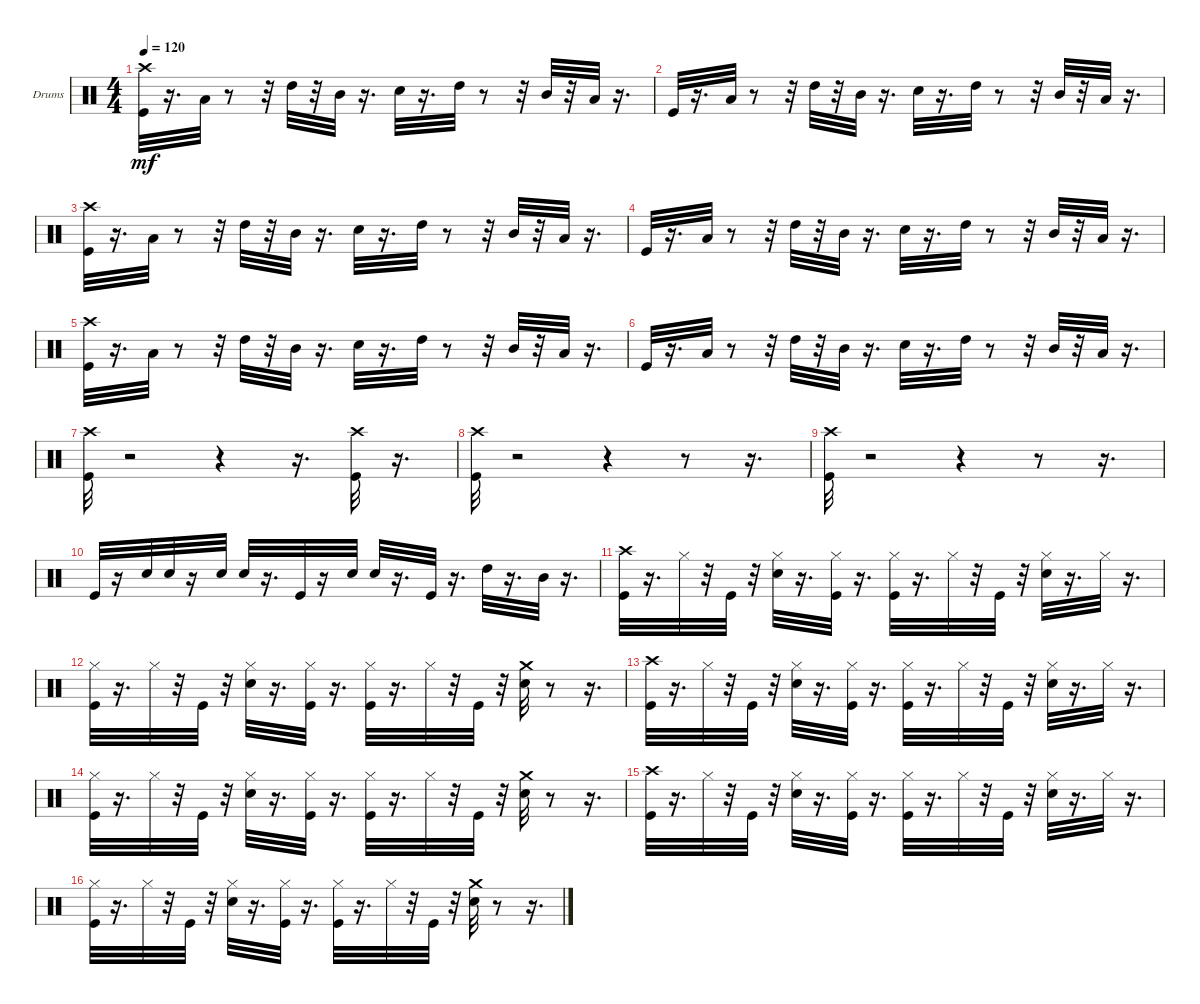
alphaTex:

\bracketExtendMode groupsimilarinstruments
\firstSystemTrackNameOrientation horizontal
\otherSystemsTrackNameOrientation horizontal
\track ("" "Drums") {instrument percussion}
\staff {score}
\articulation defaults
\ts (4 4)
\tempo 120
\clef neutral
\ks c
("Crash high (hit)" "Kick (hit)").32{dy mf} r.16{d} "Low Tom (hit)".32 r.8 r.32 "High Tom (hit)".32 r.32 "Mid Tom (hit)".32 r.16{d} "Snare (hit) 2".32 r.16{d} "High Tom (hit)".32 r.8 r.32 "Mid Tom (hit)".32 r.32 "Low Tom (hit)".32 r.16{d} |
"Kick (hit)".32 r.16{d} "Low Tom (hit)".32 r.8 r.32 "High Tom (hit)".32 r.32 "Mid Tom (hit)".32 r.16{d} "Snare (hit) 2".32 r.16{d} "High Tom (hit)".32 r.8 r.32 "Mid Tom (hit)".32 r.32 "Low Tom (hit)".32 r.16{d} |
("Crash high (hit)" "Kick (hit)").32 r.16{d} "Low Tom (hit)".32 r.8 r.32 "High Tom (hit)".32 r.32 "Mid Tom (hit)".32 r.16{d} "Snare (hit) 2".32 r.16{d} "High Tom (hit)".32 r.8 r.32 "Mid Tom (hit)".32 r.32 "Low Tom (hit)".32 r.16{d} |
"Kick (hit)".32 r.16{d} "Low Tom (hit)".32 r.8 r.32 "High Tom (hit)".32 r.32 "Mid Tom (hit)".32 r.16{d} "Snare (hit) 2".32 r.16{d} "High Tom (hit)".32 r.8 r.32 "Mid Tom (hit)".32 r.32 "Low Tom (hit)".32 r.16{d} |
("Crash high (hit)" "Kick (hit)").32 r.16{d} "Low Tom (hit)".32 r.8 r.32 "High Tom (hit)".32 r.32 "Mid Tom (hit)".32 r.16{d} "Snare (hit) 2".32 r.16{d} "High Tom (hit)".32 r.8 r.32 "Mid Tom (hit)".32 r.32 "Low Tom (hit)".32 r.16{d} |
"Kick (hit)".32 r.16{d} "Low Tom (hit)".32 r.8 r.32 "High Tom (hit)".32 r.32 "Mid Tom (hit)".32 r.16{d} "Snare (hit) 2".32 r.16{d} "High Tom (hit)".32 r.8 r.32 "Mid Tom (hit)".32 r.32 "Low Tom (hit)".32 r.16{d} |
("Crash high (hit)" "Kick (hit)").32 r.2 r.4 r.16{d} ("Crash high (hit)" "Kick (hit)").32 r.16{d} |
("Crash high (hit)" "Kick (hit)").32 r.2 r.4 r.8 r.16{d} |
("Crash high (hit)" "Kick (hit)").32 r.2 r.4 r.8 r.16{d} |
"Kick (hit)".32 r.16 "Snare (hit) 2".32 "Snare (hit) 2".32 r.16 "Snare (hit) 2".32 "Snare (hit) 2".32 r.16{d} "Kick (hit)".32 r.16 "Snare (hit) 2".32 "Snare (hit) 2".32 r.16{d} "Kick (hit)".32 r.16{d} "High Tom (hit)".32 r.16{d} "Mid Tom (hit)".32 r.16{d} |
("Crash high (hit)" "Kick (hit)").32 r.16{d} "Hi-Hat (closed)".32 r.32 "Kick (hit)".32 r.32 ("Hi-Hat (closed)" "Snare (hit) 2").32 r.16{d} ("Hi-Hat (closed)" "Kick (hit)").32 r.16{d} ("Hi-Hat (closed)" "Kick (hit)").32 r.16{d} "Hi-Hat (closed)".32 r.32 "Kick (hit)".32 r.32 ("Hi-Hat (closed)" "Snare (hit) 2").32 r.16{d} "Hi-Hat (closed)".32 r.16{d} |
("Hi-Hat (closed)" "Kick (hit)").32 r.16{d} "Hi-Hat (closed)".32 r.32 "Kick (hit)".32 r.32 ("Hi-Hat (closed)" "Snare (hit) 2").32 r.16{d} ("Hi-Hat (closed)" "Kick (hit)").32 r.16{d} ("Hi-Hat (closed)" "Kick (hit)").32 r.16{d} "Hi-Hat (closed)".32 r.32 "Kick (hit)".32 r.32 ("Crash medium (hit)" "Snare (hit) 2").32 r.8 r.16{d} |
("Crash high (hit)" "Kick (hit)").32 r.16{d} "Hi-Hat (closed)".32 r.32 "Kick (hit)".32 r.32 ("Hi-Hat (closed)" "Snare (hit) 2").32 r.16{d} ("Hi-Hat (closed)" "Kick (hit)").32 r.16{d} ("Hi-Hat (closed)" "Kick (hit)").32 r.16{d} "Hi-Hat (closed)".32 r.32 "Kick (hit)".32 r.32 ("Hi-Hat (closed)" "Snare (hit) 2").32 r.16{d} "Hi-Hat (closed)".32 r.16{d} |
("Hi-Hat (closed)" "Kick (hit)").32 r.16{d} "Hi-Hat (closed)".32 r.32 "Kick (hit)".32 r.32 ("Hi-Hat (closed)" "Snare (hit) 2").32 r.16{d} ("Hi-Hat (closed)" "Kick (hit)").32 r.16{d} ("Hi-Hat (closed)" "Kick (hit)").32 r.16{d} "Hi-Hat (closed)".32 r.32 "Kick (hit)".32 r.32 ("Crash medium (hit)" "Snare (hit) 2").32 r.8 r.16{d} |
("Crash high (hit)" "Kick (hit)").32 r.16{d} "Hi-Hat (closed)".32 r.32 "Kick (hit)".32 r.32 ("Hi-Hat (closed)" "Snare (hit) 2").32 r.16{d} ("Hi-Hat (closed)" "Kick (hit)").32 r.16{d} ("Hi-Hat (closed)" "Kick (hit)").32 r.16{d} "Hi-Hat (closed)".32 r.32 "Kick (hit)".32 r.32 ("Hi-Hat (closed)" "Snare (hit) 2").32 r.16{d} "Hi-Hat (closed)".32 r.16{d} |
("Hi-Hat (closed)" "Kick (hit)").32 r.16{d} "Hi-Hat (closed)".32 r.32 "Kick (hit)".32 r.32 ("Hi-Hat (closed)" "Snare (hit) 2").32 r.16{d} ("Hi-Hat (closed)" "Kick (hit)").32 r.16{d} ("Hi-Hat (closed)" "Kick (hit)").32 r.16{d} "Hi-Hat (closed)".32 r.32 "Kick (hit)".32 r.32 ("Crash medium (hit)" "Snare (hit) 2").32 r.8 r.16{d}
